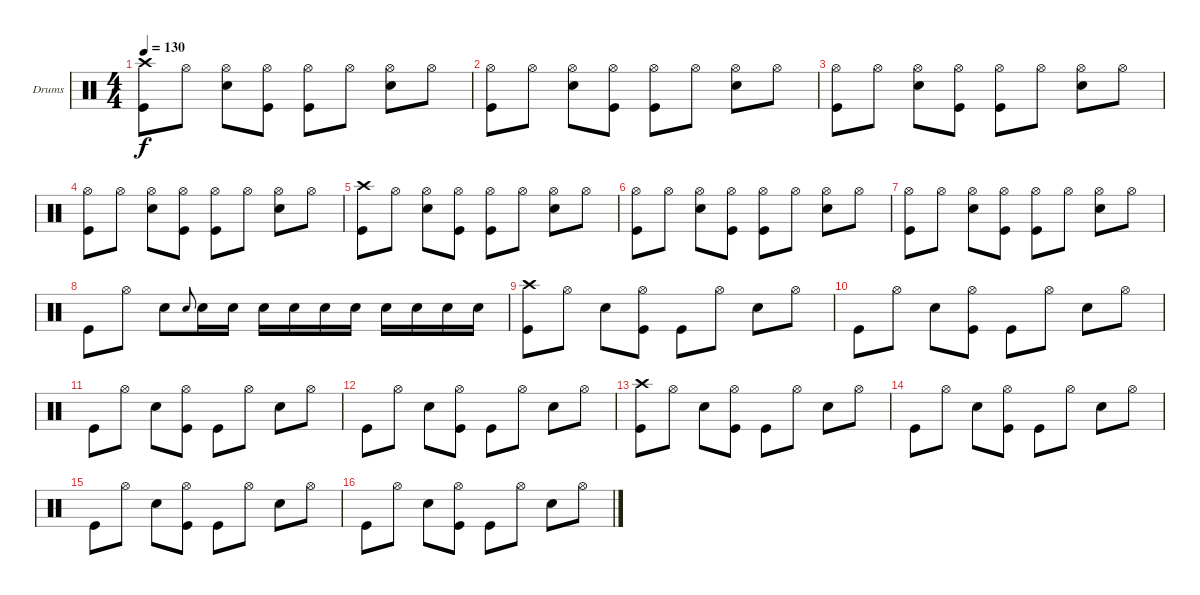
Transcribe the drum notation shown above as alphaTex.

\defaultSystemsLayout 4
\bracketExtendMode groupsimilarinstruments
\firstSystemTrackNameOrientation horizontal
\otherSystemsTrackNameOrientation horizontal
\track ("Drumkit" "Drums") {instrument percussion}
\staff {score}
\articulation defaults
\ts (4 4)
\tempo 130
\clef neutral
\scale
0.474178
\ks c
("Kick (hit)" "Crash high (hit)").8{dy f} "Hi-Hat (open)".8 ("Snare (hit) 2" "Hi-Hat (open)").8 ("Kick (hit)" "Hi-Hat (open)").8 ("Kick (hit)" "Hi-Hat (open)").8 "Hi-Hat (open)".8 ("Snare (hit) 2" "Hi-Hat (open)").8 "Hi-Hat (open)".8 |
\scale
0.262911 ("Kick (hit)" "Hi-Hat (open)").8 "Hi-Hat (open)".8 ("Snare (hit) 2" "Hi-Hat (open)").8 ("Kick (hit)" "Hi-Hat (open)").8 ("Kick (hit)" "Hi-Hat (open)").8 "Hi-Hat (open)".8 ("Snare (hit) 2" "Hi-Hat (open)").8 "Hi-Hat (open)".8 |
\scale
0.262911 ("Kick (hit)" "Hi-Hat (open)").8 "Hi-Hat (open)".8 ("Snare (hit) 2" "Hi-Hat (open)").8 ("Kick (hit)" "Hi-Hat (open)").8 ("Kick (hit)" "Hi-Hat (open)").8 "Hi-Hat (open)".8 ("Snare (hit) 2" "Hi-Hat (open)").8 "Hi-Hat (open)".8 |
\scale
0.333333 ("Kick (hit)" "Hi-Hat (open)").8 "Hi-Hat (open)".8 ("Snare (hit) 2" "Hi-Hat (open)").8 ("Kick (hit)" "Hi-Hat (open)").8 ("Kick (hit)" "Hi-Hat (open)").8 "Hi-Hat (open)".8 ("Snare (hit) 2" "Hi-Hat (open)").8 "Hi-Hat (open)".8 |
\scale
0.333333 ("Kick (hit)" "Crash high (hit)").8 "Hi-Hat (open)".8 ("Snare (hit) 2" "Hi-Hat (open)").8 ("Kick (hit)" "Hi-Hat (open)").8 ("Kick (hit)" "Hi-Hat (open)").8 "Hi-Hat (open)".8 ("Snare (hit) 2" "Hi-Hat (open)").8 "Hi-Hat (open)".8 |
\scale
0.333333 ("Kick (hit)" "Hi-Hat (open)").8 "Hi-Hat (open)".8 ("Snare (hit) 2" "Hi-Hat (open)").8 ("Kick (hit)" "Hi-Hat (open)").8 ("Kick (hit)" "Hi-Hat (open)").8 "Hi-Hat (open)".8 ("Snare (hit) 2" "Hi-Hat (open)").8 "Hi-Hat (open)".8 |
\scale
0.333333 ("Kick (hit)" "Hi-Hat (open)").8 "Hi-Hat (open)".8 ("Snare (hit) 2" "Hi-Hat (open)").8 ("Kick (hit)" "Hi-Hat (open)").8 ("Kick (hit)" "Hi-Hat (open)").8 "Hi-Hat (open)".8 ("Snare (hit) 2" "Hi-Hat (open)").8 "Hi-Hat (open)".8 |
\scale
0.333333 "Kick (hit)".8 "Hi-Hat (open)".8 "Snare (hit) 2".8 "Snare (hit) 2".8{gr onbeat} "Snare (hit) 2".16 "Snare (hit) 2".16 "Snare (hit) 2".16 "Snare (hit) 2".16 "Snare (hit) 2".16 "Snare (hit) 2".16 "Snare (hit) 2".16 "Snare (hit) 2".16 "Snare (hit) 2".16 "Snare (hit) 2".16 |
\scale
0.333333 ("Kick (hit)" "Crash high (hit)").8 "Hi-Hat (open)".8 "Snare (hit) 2".8 ("Kick (hit)" "Hi-Hat (open)").8 "Kick (hit)".8 "Hi-Hat (open)".8 "Snare (hit) 2".8 "Hi-Hat (open)".8 |
"Kick (hit)".8 "Hi-Hat (open)".8 "Snare (hit) 2".8 ("Kick (hit)" "Hi-Hat (open)").8 "Kick (hit)".8 "Hi-Hat (open)".8 "Snare (hit) 2".8 "Hi-Hat (open)".8 |
"Kick (hit)".8 "Hi-Hat (open)".8 "Snare (hit) 2".8 ("Kick (hit)" "Hi-Hat (open)").8 "Kick (hit)".8 "Hi-Hat (open)".8 "Snare (hit) 2".8 "Hi-Hat (open)".8 |
"Kick (hit)".8 "Hi-Hat (open)".8 "Snare (hit) 2".8 ("Kick (hit)" "Hi-Hat (open)").8 "Kick (hit)".8 "Hi-Hat (open)".8 "Snare (hit) 2".8 "Hi-Hat (open)".8 |
("Kick (hit)" "Crash high (hit)").8 "Hi-Hat (open)".8 "Snare (hit) 2".8 ("Kick (hit)" "Hi-Hat (open)").8 "Kick (hit)".8 "Hi-Hat (open)".8 "Snare (hit) 2".8 "Hi-Hat (open)".8 |
"Kick (hit)".8 "Hi-Hat (open)".8 "Snare (hit) 2".8 ("Kick (hit)" "Hi-Hat (open)").8 "Kick (hit)".8 "Hi-Hat (open)".8 "Snare (hit) 2".8 "Hi-Hat (open)".8 |
"Kick (hit)".8 "Hi-Hat (open)".8 "Snare (hit) 2".8 ("Kick (hit)" "Hi-Hat (open)").8 "Kick (hit)".8 "Hi-Hat (open)".8 "Snare (hit) 2".8 "Hi-Hat (open)".8 |
"Kick (hit)".8 "Hi-Hat (open)".8 "Snare (hit) 2".8 ("Kick (hit)" "Hi-Hat (open)").8 "Kick (hit)".8 "Hi-Hat (open)".8 "Snare (hit) 2".8 "Hi-Hat (open)".8
